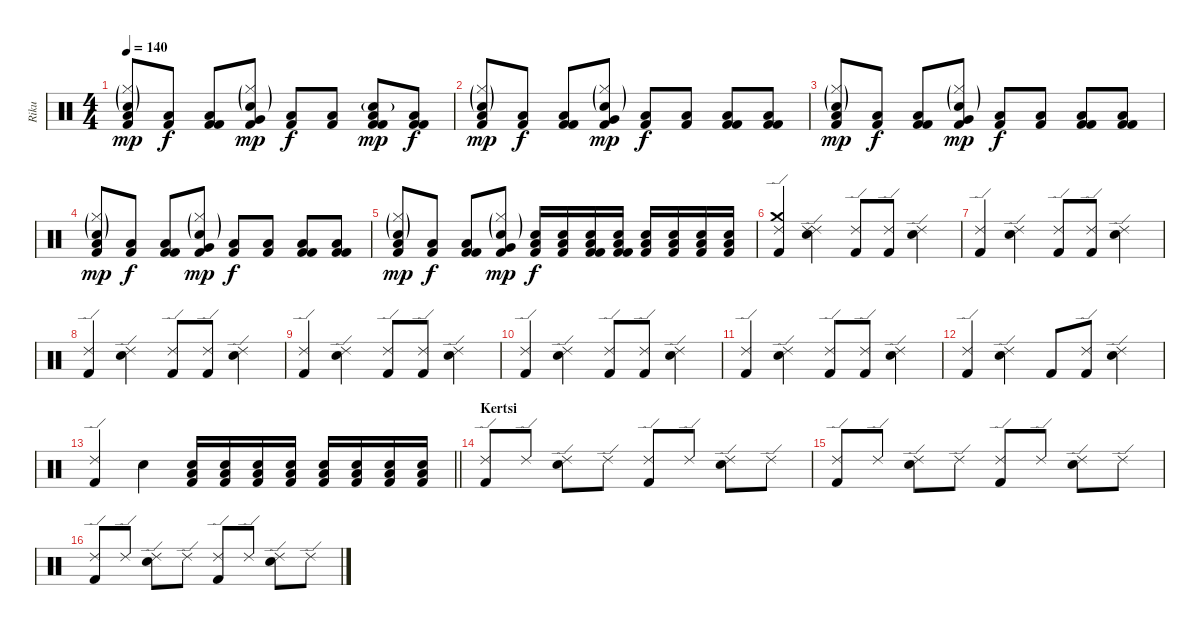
\track ("Riku" "Riku") {instrument percussion}
\staff {score}
\articulation defaults
\ts (4 4)
\tempo 140
\clef neutral
\ks c
("Kick (hit) 2" "Hi-Hat (closed)"{g} "Low Tom (hit)" "Electric Snare (hit)"{g}).8{dy mp} ("Kick (hit) 2" "Low Tom (hit)").8{dy f} ("Kick (hit) 2" "Low Tom (hit)" "Kick (hit) 2").8 ("Kick (hit) 2" "Hi-Hat (closed)"{g} "Very Low Tom (hit)" "Electric Snare (hit)"{g}).8{dy mp} ("Kick (hit) 2" "Low Tom (hit)").8{dy f} ("Kick (hit) 2" "Low Tom (hit)").8 ("Kick (hit) 2" "Snare (hit) 2"{g} "Low Tom (hit)" "Kick (hit) 2").8{dy mp} ("Kick (hit) 2" "Low Tom (hit)" "Kick (hit) 2").8{dy f} |
("Kick (hit) 2" "Hi-Hat (closed)"{g} "Low Tom (hit)" "Electric Snare (hit)"{g}).8{dy mp} ("Kick (hit) 2" "Low Tom (hit)").8{dy f} ("Kick (hit) 2" "Low Tom (hit)" "Kick (hit) 2").8 ("Kick (hit) 2" "Hi-Hat (closed)"{g} "Very Low Tom (hit)" "Electric Snare (hit)"{g}).8{dy mp} ("Kick (hit) 2" "Low Tom (hit)").8{dy f} ("Kick (hit) 2" "Low Tom (hit)").8 ("Kick (hit) 2" "Low Tom (hit)" "Kick (hit) 2").8 ("Kick (hit) 2" "Low Tom (hit)" "Kick (hit) 2").8 |
("Kick (hit) 2" "Hi-Hat (closed)"{g} "Low Tom (hit)" "Electric Snare (hit)"{g}).8{dy mp} ("Kick (hit) 2" "Low Tom (hit)").8{dy f} ("Kick (hit) 2" "Low Tom (hit)" "Kick (hit) 2").8 ("Kick (hit) 2" "Hi-Hat (closed)"{g} "Very Low Tom (hit)" "Electric Snare (hit)"{g}).8{dy mp} ("Kick (hit) 2" "Low Tom (hit)").8{dy f} ("Kick (hit) 2" "Low Tom (hit)").8 ("Kick (hit) 2" "Low Tom (hit)" "Kick (hit) 2").8 ("Kick (hit) 2" "Low Tom (hit)" "Kick (hit) 2").8 |
("Kick (hit) 2" "Hi-Hat (closed)"{g} "Low Tom (hit)" "Electric Snare (hit)"{g}).8{dy mp} ("Kick (hit) 2" "Low Tom (hit)").8{dy f} ("Kick (hit) 2" "Low Tom (hit)" "Kick (hit) 2").8 ("Kick (hit) 2" "Hi-Hat (closed)"{g} "Very Low Tom (hit)" "Electric Snare (hit)"{g}).8{dy mp} ("Kick (hit) 2" "Low Tom (hit)").8{dy f} ("Kick (hit) 2" "Low Tom (hit)").8 ("Kick (hit) 2" "Low Tom (hit)" "Kick (hit) 2").8 ("Kick (hit) 2" "Low Tom (hit)" "Kick (hit) 2").8 |
("Kick (hit) 2" "Hi-Hat (closed)"{g} "Low Tom (hit)" "Electric Snare (hit)"{g}).8{dy mp} ("Kick (hit) 2" "Low Tom (hit)").8{dy f} ("Kick (hit) 2" "Low Tom (hit)" "Kick (hit) 2").8 ("Kick (hit) 2" "Hi-Hat (closed)"{g} "Very Low Tom (hit)" "Electric Snare (hit)"{g}).8{dy mp} ("Electric Snare (hit)" "Kick (hit) 2" "Low Tom (hit)").16{dy f} ("Electric Snare (hit)" "Kick (hit) 2" "Low Tom (hit)").16 ("Electric Snare (hit)" "Kick (hit) 2" "Low Tom (hit)" "Kick (hit) 2").16 ("Electric Snare (hit)" "Kick (hit) 2" "Low Tom (hit)" "Kick (hit) 2").16 ("Electric Snare (hit)" "Kick (hit) 2" "Low Tom (hit)").16 ("Electric Snare (hit)" "Kick (hit) 2" "Low Tom (hit)").16 ("Electric Snare (hit)" "Kick (hit) 2" "Low Tom (hit)").16 ("Electric Snare (hit)" "Kick (hit) 2" "Low Tom (hit)").16 |
("Kick (hit) 2" "Crash medium (hit)" "Ride (edge) 2").4 ("Ride (edge) 2" "Snare (hit) 2" "Ride (edge) 2").4 ("Kick (hit) 2" "Ride (edge) 2").8 ("Kick (hit) 2" "Ride (edge) 2").8 ("Snare (hit) 2" "Ride (edge) 2").4 |
("Ride (edge) 2" "Kick (hit) 2").4 ("Snare (hit) 2" "Ride (edge) 2").4 ("Kick (hit) 2" "Ride (edge) 2").8 ("Kick (hit) 2" "Ride (edge) 2").8 ("Snare (hit) 2" "Ride (edge) 2").4 |
("Ride (edge) 2" "Kick (hit) 2").4 ("Snare (hit) 2" "Ride (edge) 2").4 ("Kick (hit) 2" "Ride (edge) 2").8 ("Kick (hit) 2" "Ride (edge) 2").8 ("Snare (hit) 2" "Ride (edge) 2").4 |
("Ride (edge) 2" "Kick (hit) 2").4 ("Snare (hit) 2" "Ride (edge) 2").4 ("Kick (hit) 2" "Ride (edge) 2").8 ("Kick (hit) 2" "Ride (edge) 2").8 ("Snare (hit) 2" "Ride (edge) 2").4 |
("Ride (edge) 2" "Kick (hit) 2").4 ("Snare (hit) 2" "Ride (edge) 2").4 ("Kick (hit) 2" "Ride (edge) 2").8 ("Kick (hit) 2" "Ride (edge) 2").8 ("Snare (hit) 2" "Ride (edge) 2").4 |
("Ride (edge) 2" "Kick (hit) 2").4 ("Snare (hit) 2" "Ride (edge) 2").4 ("Kick (hit) 2" "Ride (edge) 2").8 ("Kick (hit) 2" "Ride (edge) 2").8 ("Snare (hit) 2" "Ride (edge) 2").4 |
("Ride (edge) 2" "Kick (hit) 2").4 ("Snare (hit) 2" "Ride (edge) 2").4 "Kick (hit) 2".8 ("Kick (hit) 2" "Ride (edge) 2").8 ("Snare (hit) 2" "Ride (edge) 2").4 |
\barLineRight lightlight
("Ride (edge) 2" "Kick (hit) 2").4 "Snare (hit) 2".4 ("Low Tom (hit)" "Electric Snare (hit)" "Kick (hit) 2").16 ("Low Tom (hit)" "Snare (hit) 2" "Kick (hit) 2").16 ("Low Tom (hit)" "Electric Snare (hit)" "Kick (hit) 2").16 ("Low Tom (hit)" "Snare (hit) 2" "Kick (hit) 2").16 ("Low Tom (hit)" "Electric Snare (hit)" "Kick (hit) 2").16 ("Low Tom (hit)" "Snare (hit) 2" "Kick (hit) 2").16 ("Low Tom (hit)" "Electric Snare (hit)" "Kick (hit) 2").16 ("Low Tom (hit)" "Snare (hit) 2" "Kick (hit) 2").16 |
\section ("" "Kertsi")
("Kick (hit) 2" "Ride (edge) 2").8 "Ride (edge) 2".8 ("Electric Snare (hit)" "Ride (edge) 2").8 "Ride (edge) 2".8 ("Kick (hit) 2" "Ride (edge) 2").8 "Ride (edge) 2".8 ("Electric Snare (hit)" "Ride (edge) 2").8 "Ride (edge) 2".8 |
("Kick (hit) 2" "Ride (edge) 2").8 "Ride (edge) 2".8 ("Electric Snare (hit)" "Ride (edge) 2").8 "Ride (edge) 2".8 ("Kick (hit) 2" "Ride (edge) 2").8 "Ride (edge) 2".8 ("Electric Snare (hit)" "Ride (edge) 2").8 "Ride (edge) 2".8 |
("Kick (hit) 2" "Ride (edge) 2").8 "Ride (edge) 2".8 ("Electric Snare (hit)" "Ride (edge) 2").8 "Ride (edge) 2".8 ("Kick (hit) 2" "Ride (edge) 2").8 "Ride (edge) 2".8 ("Electric Snare (hit)" "Ride (edge) 2").8 "Ride (edge) 2".8
